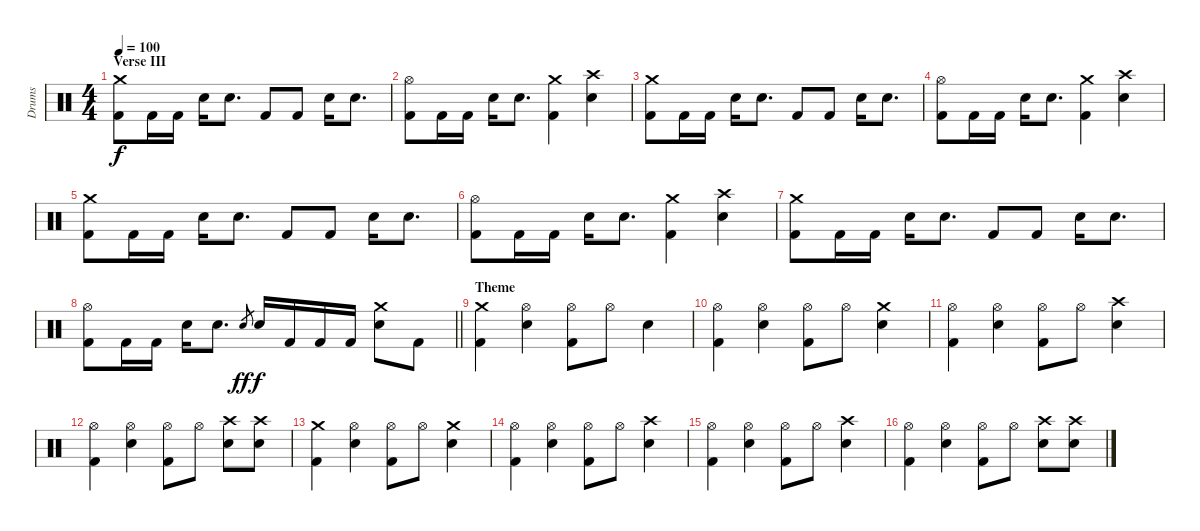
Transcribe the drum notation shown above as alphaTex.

\track ("Drums" "Drums") {instrument percussion}
\staff {score}
\articulation defaults
\ts (4 4)
\section ("" "Verse III")
\tempo 100
\clef neutral
\ks c
("Crash medium (hit)" "Kick (hit) 2").8{dy f} "Kick (hit) 2".16 "Kick (hit) 2".16 "Snare (hit) 2".16 "Snare (hit) 2".8{d} "Kick (hit) 2".8 "Kick (hit) 2".8 "Snare (hit) 2".16 "Snare (hit) 2".8{d} |
("Hi-Hat (open)" "Kick (hit) 2").8 "Kick (hit) 2".16 "Kick (hit) 2".16 "Snare (hit) 2".16 "Snare (hit) 2".8{d} ("Crash medium (hit)" "Kick (hit) 2").4 ("Crash high (hit)" "Snare (hit) 2").4 |
("Crash medium (hit)" "Kick (hit) 2").8 "Kick (hit) 2".16 "Kick (hit) 2".16 "Snare (hit) 2".16 "Snare (hit) 2".8{d} "Kick (hit) 2".8 "Kick (hit) 2".8 "Snare (hit) 2".16 "Snare (hit) 2".8{d} |
("Hi-Hat (open)" "Kick (hit) 2").8 "Kick (hit) 2".16 "Kick (hit) 2".16 "Snare (hit) 2".16 "Snare (hit) 2".8{d} ("Crash medium (hit)" "Kick (hit) 2").4 ("Crash high (hit)" "Snare (hit) 2").4 |
("Crash medium (hit)" "Kick (hit) 2").8 "Kick (hit) 2".16 "Kick (hit) 2".16 "Snare (hit) 2".16 "Snare (hit) 2".8{d} "Kick (hit) 2".8 "Kick (hit) 2".8 "Snare (hit) 2".16 "Snare (hit) 2".8{d} |
("Hi-Hat (open)" "Kick (hit) 2").8 "Kick (hit) 2".16 "Kick (hit) 2".16 "Snare (hit) 2".16 "Snare (hit) 2".8{d} ("Crash medium (hit)" "Kick (hit) 2").4 ("Crash high (hit)" "Snare (hit) 2").4 |
("Crash medium (hit)" "Kick (hit) 2").8 "Kick (hit) 2".16 "Kick (hit) 2".16 "Snare (hit) 2".16 "Snare (hit) 2".8{d} "Kick (hit) 2".8 "Kick (hit) 2".8 "Snare (hit) 2".16 "Snare (hit) 2".8{d} |
\barLineRight lightlight
("Hi-Hat (open)" "Kick (hit) 2").8 "Kick (hit) 2".16 "Kick (hit) 2".16 "Snare (hit) 2".16 "Snare (hit) 2".8{d} "Snare (hit) 2".8{gr dy ff} "Snare (hit) 2".16{dy f} "Kick (hit) 2".16 "Kick (hit) 2".16 "Kick (hit) 2".16 ("Crash medium (hit)" "Snare (hit) 2").8 "Kick (hit) 2".8 |
\section ("" "Theme")
("Crash medium (hit)" "Kick (hit) 2").4 ("Hi-Hat (open)" "Snare (hit) 2").4 ("Hi-Hat (open)" "Kick (hit) 2").8 "Hi-Hat (open)".8 "Snare (hit) 2".4 |
("Hi-Hat (open)" "Kick (hit) 2").4 ("Hi-Hat (open)" "Snare (hit) 2").4 ("Hi-Hat (open)" "Kick (hit) 2").8 "Hi-Hat (open)".8 ("Crash medium (hit)" "Snare (hit) 2").4 |
("Hi-Hat (open)" "Kick (hit) 2").4 ("Hi-Hat (open)" "Snare (hit) 2").4 ("Hi-Hat (open)" "Kick (hit) 2").8 "Hi-Hat (open)".8 ("Crash high (hit)" "Snare (hit) 2").4 |
("Hi-Hat (open)" "Kick (hit) 2").4 ("Hi-Hat (open)" "Snare (hit) 2").4 ("Hi-Hat (open)" "Kick (hit) 2").8 "Hi-Hat (open)".8 ("Crash high (hit)" "Snare (hit) 2").8 ("Crash high (hit)" "Snare (hit) 2").8 |
("Crash medium (hit)" "Kick (hit) 2").4 ("Hi-Hat (open)" "Snare (hit) 2").4 ("Hi-Hat (open)" "Kick (hit) 2").8 "Hi-Hat (open)".8 ("Crash medium (hit)" "Snare (hit) 2").4 |
("Hi-Hat (open)" "Kick (hit) 2").4 ("Hi-Hat (open)" "Snare (hit) 2").4 ("Hi-Hat (open)" "Kick (hit) 2").8 "Hi-Hat (open)".8 ("Crash high (hit)" "Snare (hit) 2").4 |
("Hi-Hat (open)" "Kick (hit) 2").4 ("Hi-Hat (open)" "Snare (hit) 2").4 ("Hi-Hat (open)" "Kick (hit) 2").8 "Hi-Hat (open)".8 ("Crash high (hit)" "Snare (hit) 2").4 |
("Hi-Hat (open)" "Kick (hit) 2").4 ("Hi-Hat (open)" "Snare (hit) 2").4 ("Hi-Hat (open)" "Kick (hit) 2").8 "Hi-Hat (open)".8 ("Crash high (hit)" "Snare (hit) 2").8 ("Crash high (hit)" "Snare (hit) 2").8
